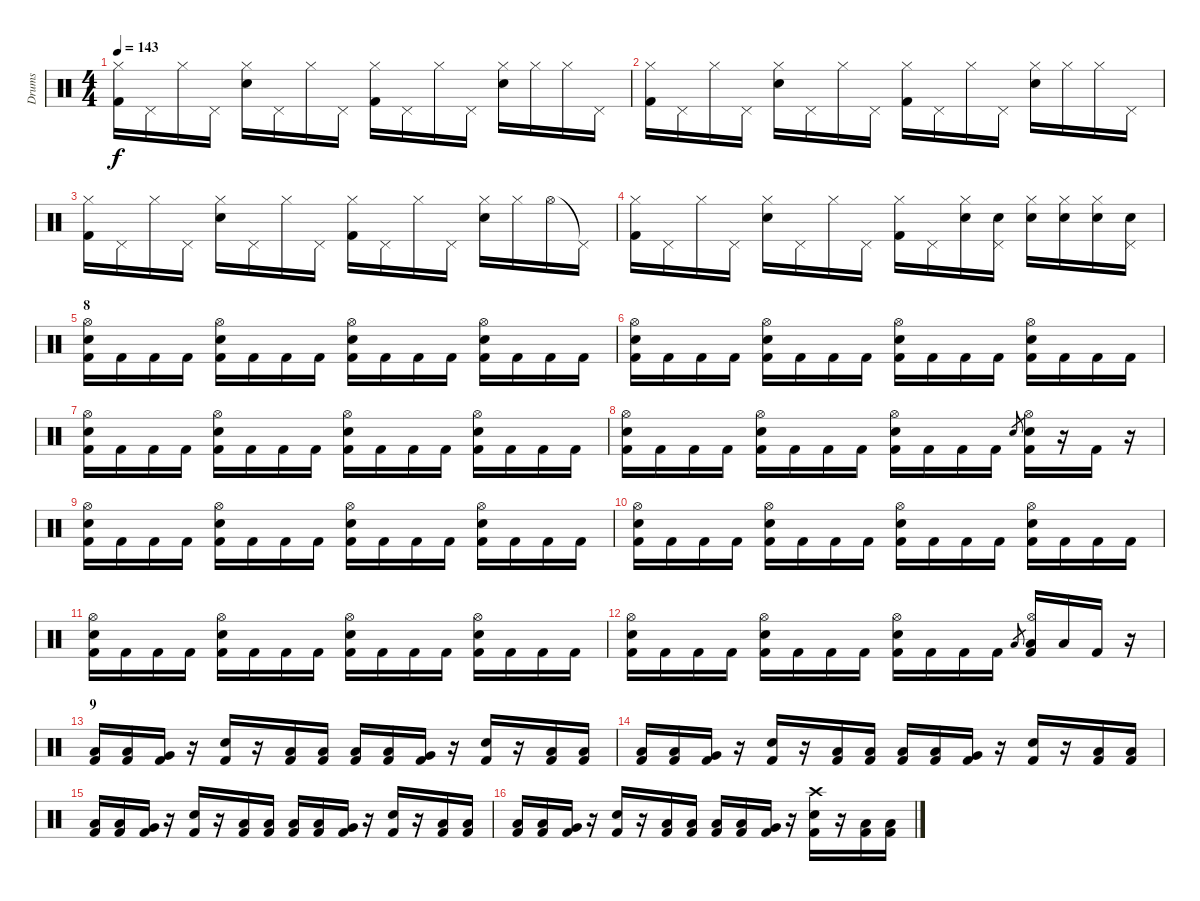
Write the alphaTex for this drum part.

\track ("Drums" "Drums") {instrument percussion}
\staff {score}
\articulation defaults
\ts (4 4)
\tempo 143
\clef neutral
\ks c
("Hi-Hat (closed)" "Kick (hit) 2").16{dy f} "Pedal Hi-Hat (hit)".16 "Hi-Hat (closed)".16 "Pedal Hi-Hat (hit)".16 ("Hi-Hat (closed)" "Electric Snare (hit)").16 "Pedal Hi-Hat (hit)".16 "Hi-Hat (closed)".16 "Pedal Hi-Hat (hit)".16 ("Hi-Hat (closed)" "Kick (hit) 2").16 "Pedal Hi-Hat (hit)".16 "Hi-Hat (closed)".16 "Pedal Hi-Hat (hit)".16 ("Hi-Hat (closed)" "Electric Snare (hit)").16 "Hi-Hat (closed)".16 "Hi-Hat (closed)".16 "Pedal Hi-Hat (hit)".16 |
("Hi-Hat (closed)" "Kick (hit) 2").16 "Pedal Hi-Hat (hit)".16 "Hi-Hat (closed)".16 "Pedal Hi-Hat (hit)".16 ("Hi-Hat (closed)" "Electric Snare (hit)").16 "Pedal Hi-Hat (hit)".16 "Hi-Hat (closed)".16 "Pedal Hi-Hat (hit)".16 ("Hi-Hat (closed)" "Kick (hit) 2").16 "Pedal Hi-Hat (hit)".16 "Hi-Hat (closed)".16 "Pedal Hi-Hat (hit)".16 ("Hi-Hat (closed)" "Electric Snare (hit)").16 "Hi-Hat (closed)".16 "Hi-Hat (closed)".16 "Pedal Hi-Hat (hit)".16 |
("Hi-Hat (closed)" "Kick (hit) 2").16 "Pedal Hi-Hat (hit)".16 "Hi-Hat (closed)".16 "Pedal Hi-Hat (hit)".16 ("Hi-Hat (closed)" "Electric Snare (hit)").16 "Pedal Hi-Hat (hit)".16 "Hi-Hat (closed)".16 "Pedal Hi-Hat (hit)".16 ("Hi-Hat (closed)" "Kick (hit) 2").16 "Pedal Hi-Hat (hit)".16 "Hi-Hat (closed)".16 "Pedal Hi-Hat (hit)".16 ("Hi-Hat (closed)" "Electric Snare (hit)").16 "Hi-Hat (closed)".16 "Hi-Hat (open)".16 "Pedal Hi-Hat (hit)"{t}.16 |
("Hi-Hat (closed)" "Kick (hit) 2").16 "Pedal Hi-Hat (hit)".16 "Hi-Hat (closed)".16 "Pedal Hi-Hat (hit)".16 ("Hi-Hat (closed)" "Electric Snare (hit)").16 "Pedal Hi-Hat (hit)".16 "Hi-Hat (closed)".16 "Pedal Hi-Hat (hit)".16 ("Hi-Hat (closed)" "Kick (hit) 2").16 "Pedal Hi-Hat (hit)".16 ("Hi-Hat (closed)" "Electric Snare (hit)").16 ("Pedal Hi-Hat (hit)" "Electric Snare (hit)").16 ("Hi-Hat (closed)" "Electric Snare (hit)").16 ("Hi-Hat (closed)" "Electric Snare (hit)").16 ("Hi-Hat (closed)" "Electric Snare (hit)").16 ("Pedal Hi-Hat (hit)" "Electric Snare (hit)").16 |
\section ("" "8")
("Hi-Hat (open)" "Kick (hit) 2" "Electric Snare (hit)").16 "Kick (hit) 2".16 "Kick (hit) 2".16 "Kick (hit) 2".16 ("Hi-Hat (open)" "Kick (hit) 2" "Electric Snare (hit)").16 "Kick (hit) 2".16 "Kick (hit) 2".16 "Kick (hit) 2".16 ("Hi-Hat (open)" "Kick (hit) 2" "Electric Snare (hit)").16 "Kick (hit) 2".16 "Kick (hit) 2".16 "Kick (hit) 2".16 ("Hi-Hat (open)" "Kick (hit) 2" "Electric Snare (hit)").16 "Kick (hit) 2".16 "Kick (hit) 2".16 "Kick (hit) 2".16 |
("Hi-Hat (open)" "Kick (hit) 2" "Electric Snare (hit)").16 "Kick (hit) 2".16 "Kick (hit) 2".16 "Kick (hit) 2".16 ("Hi-Hat (open)" "Kick (hit) 2" "Electric Snare (hit)").16 "Kick (hit) 2".16 "Kick (hit) 2".16 "Kick (hit) 2".16 ("Hi-Hat (open)" "Kick (hit) 2" "Electric Snare (hit)").16 "Kick (hit) 2".16 "Kick (hit) 2".16 "Kick (hit) 2".16 ("Hi-Hat (open)" "Kick (hit) 2" "Electric Snare (hit)").16 "Kick (hit) 2".16 "Kick (hit) 2".16 "Kick (hit) 2".16 |
("Hi-Hat (open)" "Kick (hit) 2" "Electric Snare (hit)").16 "Kick (hit) 2".16 "Kick (hit) 2".16 "Kick (hit) 2".16 ("Hi-Hat (open)" "Kick (hit) 2" "Electric Snare (hit)").16 "Kick (hit) 2".16 "Kick (hit) 2".16 "Kick (hit) 2".16 ("Hi-Hat (open)" "Kick (hit) 2" "Electric Snare (hit)").16 "Kick (hit) 2".16 "Kick (hit) 2".16 "Kick (hit) 2".16 ("Hi-Hat (open)" "Kick (hit) 2" "Electric Snare (hit)").16 "Kick (hit) 2".16 "Kick (hit) 2".16 "Kick (hit) 2".16 |
("Hi-Hat (open)" "Kick (hit) 2" "Electric Snare (hit)").16 "Kick (hit) 2".16 "Kick (hit) 2".16 "Kick (hit) 2".16 ("Hi-Hat (open)" "Kick (hit) 2" "Electric Snare (hit)").16 "Kick (hit) 2".16 "Kick (hit) 2".16 "Kick (hit) 2".16 ("Hi-Hat (open)" "Kick (hit) 2" "Electric Snare (hit)").16 "Kick (hit) 2".16 "Kick (hit) 2".16 "Kick (hit) 2".16 "Electric Snare (hit)".8{gr} ("Hi-Hat (open)" "Kick (hit) 2" "Electric Snare (hit)").16 r.16 "Kick (hit) 2".16 r.16 |
("Hi-Hat (open)" "Kick (hit) 2" "Electric Snare (hit)").16 "Kick (hit) 2".16 "Kick (hit) 2".16 "Kick (hit) 2".16 ("Hi-Hat (open)" "Kick (hit) 2" "Electric Snare (hit)").16 "Kick (hit) 2".16 "Kick (hit) 2".16 "Kick (hit) 2".16 ("Hi-Hat (open)" "Kick (hit) 2" "Electric Snare (hit)").16 "Kick (hit) 2".16 "Kick (hit) 2".16 "Kick (hit) 2".16 ("Hi-Hat (open)" "Kick (hit) 2" "Electric Snare (hit)").16 "Kick (hit) 2".16 "Kick (hit) 2".16 "Kick (hit) 2".16 |
("Hi-Hat (open)" "Kick (hit) 2" "Electric Snare (hit)").16 "Kick (hit) 2".16 "Kick (hit) 2".16 "Kick (hit) 2".16 ("Hi-Hat (open)" "Kick (hit) 2" "Electric Snare (hit)").16 "Kick (hit) 2".16 "Kick (hit) 2".16 "Kick (hit) 2".16 ("Hi-Hat (open)" "Kick (hit) 2" "Electric Snare (hit)").16 "Kick (hit) 2".16 "Kick (hit) 2".16 "Kick (hit) 2".16 ("Hi-Hat (open)" "Kick (hit) 2" "Electric Snare (hit)").16 "Kick (hit) 2".16 "Kick (hit) 2".16 "Kick (hit) 2".16 |
("Hi-Hat (open)" "Kick (hit) 2" "Electric Snare (hit)").16 "Kick (hit) 2".16 "Kick (hit) 2".16 "Kick (hit) 2".16 ("Hi-Hat (open)" "Kick (hit) 2" "Electric Snare (hit)").16 "Kick (hit) 2".16 "Kick (hit) 2".16 "Kick (hit) 2".16 ("Hi-Hat (open)" "Kick (hit) 2" "Electric Snare (hit)").16 "Kick (hit) 2".16 "Kick (hit) 2".16 "Kick (hit) 2".16 ("Hi-Hat (open)" "Kick (hit) 2" "Electric Snare (hit)").16 "Kick (hit) 2".16 "Kick (hit) 2".16 "Kick (hit) 2".16 |
("Hi-Hat (open)" "Kick (hit) 2" "Electric Snare (hit)").16 "Kick (hit) 2".16 "Kick (hit) 2".16 "Kick (hit) 2".16 ("Hi-Hat (open)" "Kick (hit) 2" "Electric Snare (hit)").16 "Kick (hit) 2".16 "Kick (hit) 2".16 "Kick (hit) 2".16 ("Hi-Hat (open)" "Kick (hit) 2" "Electric Snare (hit)").16 "Kick (hit) 2".16 "Kick (hit) 2".16 "Kick (hit) 2".16 "Low Tom (hit)".8{gr} ("Hi-Hat (open)" "Kick (hit) 2" "Low Tom (hit)").16 "Low Tom (hit)".16 "Kick (hit) 2".16 r.16 |
\section ("" "9")
("Kick (hit) 2" "Low Tom (hit)").16 ("Kick (hit) 2" "Low Tom (hit)").16 ("Kick (hit) 2" "Very Low Tom (hit)").16 r.16 ("Kick (hit) 2" "Electric Snare (hit)").16 r.16 ("Kick (hit) 2" "Low Tom (hit)").16 ("Kick (hit) 2" "Low Tom (hit)").16 ("Kick (hit) 2" "Low Tom (hit)").16 ("Kick (hit) 2" "Low Tom (hit)").16 ("Kick (hit) 2" "Very Low Tom (hit)").16 r.16 ("Kick (hit) 2" "Electric Snare (hit)").16 r.16 ("Kick (hit) 2" "Low Tom (hit)").16 ("Kick (hit) 2" "Low Tom (hit)").16 |
("Kick (hit) 2" "Low Tom (hit)").16 ("Kick (hit) 2" "Low Tom (hit)").16 ("Kick (hit) 2" "Very Low Tom (hit)").16 r.16 ("Kick (hit) 2" "Electric Snare (hit)").16 r.16 ("Kick (hit) 2" "Low Tom (hit)").16 ("Kick (hit) 2" "Low Tom (hit)").16 ("Kick (hit) 2" "Low Tom (hit)").16 ("Kick (hit) 2" "Low Tom (hit)").16 ("Kick (hit) 2" "Very Low Tom (hit)").16 r.16 ("Kick (hit) 2" "Electric Snare (hit)").16 r.16 ("Kick (hit) 2" "Low Tom (hit)").16 ("Kick (hit) 2" "Low Tom (hit)").16 |
("Kick (hit) 2" "Low Tom (hit)").16 ("Kick (hit) 2" "Low Tom (hit)").16 ("Kick (hit) 2" "Very Low Tom (hit)").16 r.16 ("Kick (hit) 2" "Electric Snare (hit)").16 r.16 ("Kick (hit) 2" "Low Tom (hit)").16 ("Kick (hit) 2" "Low Tom (hit)").16 ("Kick (hit) 2" "Low Tom (hit)").16 ("Kick (hit) 2" "Low Tom (hit)").16 ("Kick (hit) 2" "Very Low Tom (hit)").16 r.16 ("Kick (hit) 2" "Electric Snare (hit)").16 r.16 ("Kick (hit) 2" "Low Tom (hit)").16 ("Kick (hit) 2" "Low Tom (hit)").16 |
("Kick (hit) 2" "Low Tom (hit)").16 ("Kick (hit) 2" "Low Tom (hit)").16 ("Kick (hit) 2" "Very Low Tom (hit)").16 r.16 ("Kick (hit) 2" "Electric Snare (hit)").16 r.16 ("Kick (hit) 2" "Low Tom (hit)").16 ("Kick (hit) 2" "Low Tom (hit)").16 ("Kick (hit) 2" "Low Tom (hit)").16 ("Kick (hit) 2" "Low Tom (hit)").16 ("Kick (hit) 2" "Very Low Tom (hit)").16 r.16 ("Crash high (hit)" "Kick (hit) 2" "Electric Snare (hit)").16 r.16 ("Kick (hit) 2" "Low Tom (hit)").16 ("Kick (hit) 2" "Low Tom (hit)").16
